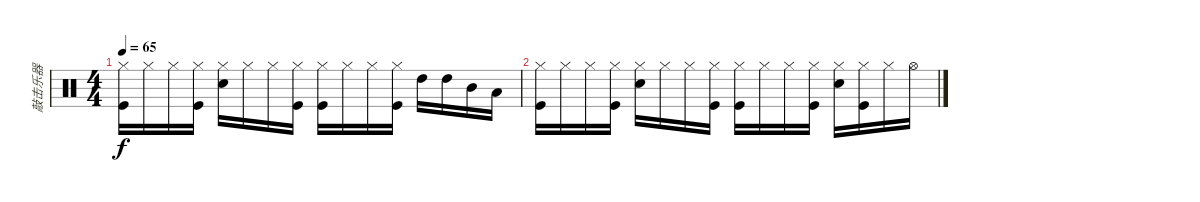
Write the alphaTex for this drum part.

\track ("敲击乐器" "敲击乐器") {instrument percussion}
\staff {score}
\articulation defaults
\ts (4 4)
\tempo 65
\clef neutral
\ks c
("Hi-Hat (closed)" "Kick (hit)").16{dy f volume 13} "Hi-Hat (closed)".16 "Hi-Hat (closed)".16 ("Hi-Hat (closed)" "Kick (hit)").16 ("Hi-Hat (closed)" "Electric Snare (hit)").16 "Hi-Hat (closed)".16 "Hi-Hat (closed)".16 ("Hi-Hat (closed)" "Kick (hit)").16 ("Hi-Hat (closed)" "Kick (hit)").16{volume 10} "Hi-Hat (closed)".16 "Hi-Hat (closed)".16 ("Hi-Hat (closed)" "Kick (hit)").16 "High Tom (hit)".16 "High Tom (hit)".16 "Mid Tom (hit)".16 "Low Tom (hit)".16 |
("Hi-Hat (closed)" "Kick (hit)").16{volume 7} "Hi-Hat (closed)".16 "Hi-Hat (closed)".16 ("Hi-Hat (closed)" "Kick (hit)").16 ("Hi-Hat (closed)" "Electric Snare (hit)").16 "Hi-Hat (closed)".16 "Hi-Hat (closed)".16 ("Hi-Hat (closed)" "Kick (hit)").16 ("Hi-Hat (closed)" "Kick (hit)").16{volume 4} "Hi-Hat (closed)".16 "Hi-Hat (closed)".16 ("Hi-Hat (closed)" "Kick (hit)").16 ("Hi-Hat (closed)" "Electric Snare (hit)").16 ("Hi-Hat (closed)" "Kick (hit)").16 "Hi-Hat (closed)".16 "Hi-Hat (open)".16
